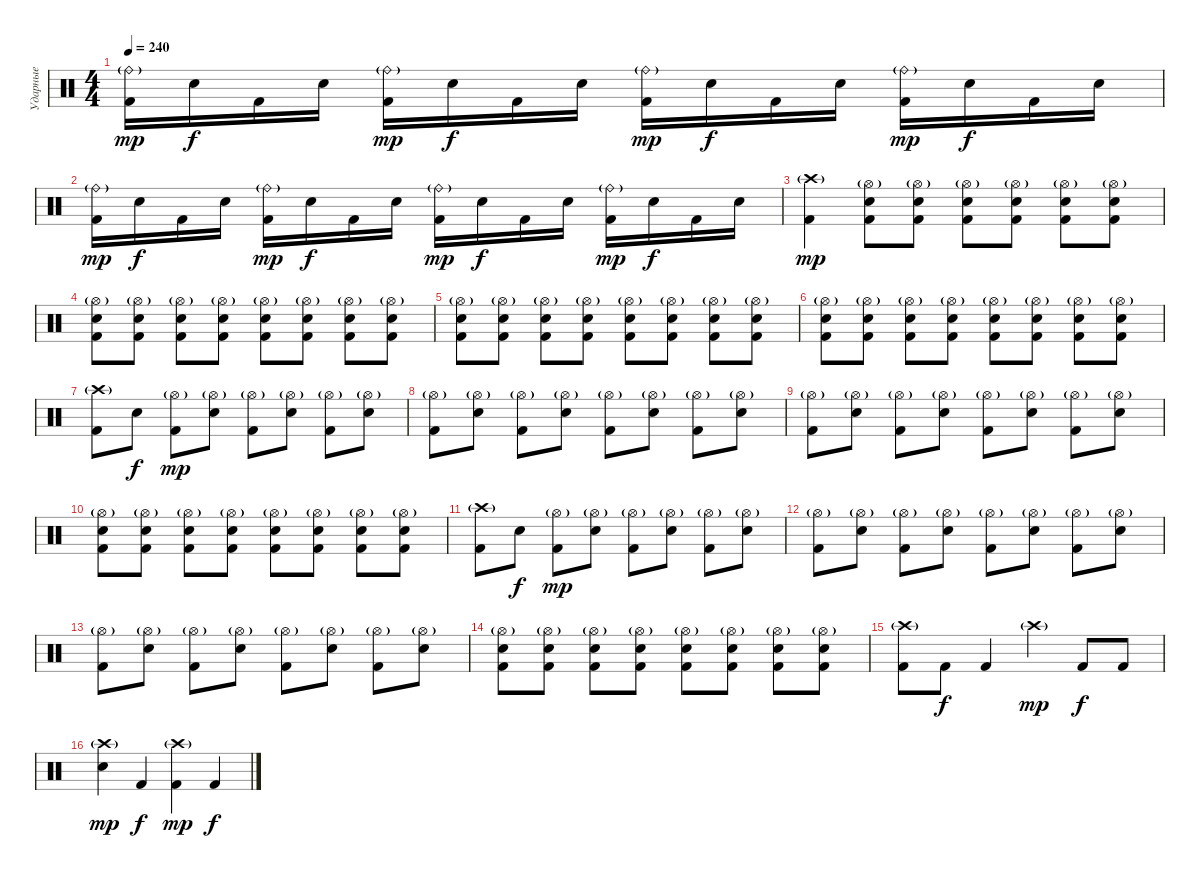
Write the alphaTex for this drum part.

\track ("Ударные" "Ударные") {instrument percussion}
\staff {score}
\articulation defaults
\ts (4 4)
\tempo 240
\clef neutral
\ks c
("Ride (bell)"{g} "Kick (hit) 2").16{dy mp} "Electric Snare (hit)".16{dy f} "Kick (hit) 2".16 "Electric Snare (hit)".16 ("Ride (bell)"{g} "Kick (hit) 2").16{dy mp} "Electric Snare (hit)".16{dy f} "Kick (hit) 2".16 "Electric Snare (hit)".16 ("Ride (bell)"{g} "Kick (hit) 2").16{dy mp} "Electric Snare (hit)".16{dy f} "Kick (hit) 2".16 "Electric Snare (hit)".16 ("Ride (bell)"{g} "Kick (hit) 2").16{dy mp} "Electric Snare (hit)".16{dy f} "Kick (hit) 2".16 "Electric Snare (hit)".16 |
("Ride (bell)"{g} "Kick (hit) 2").16{dy mp} "Electric Snare (hit)".16{dy f} "Kick (hit) 2".16 "Electric Snare (hit)".16 ("Ride (bell)"{g} "Kick (hit) 2").16{dy mp} "Electric Snare (hit)".16{dy f} "Kick (hit) 2".16 "Electric Snare (hit)".16 ("Ride (bell)"{g} "Kick (hit) 2").16{dy mp} "Electric Snare (hit)".16{dy f} "Kick (hit) 2".16 "Electric Snare (hit)".16 ("Ride (bell)"{g} "Kick (hit) 2").16{dy mp} "Electric Snare (hit)".16{dy f} "Kick (hit) 2".16 "Electric Snare (hit)".16 |
("Crash high (hit)"{g} "Kick (hit) 2").4{dy mp} ("Hi-Hat (open)"{g} "Electric Snare (hit)" "Kick (hit) 2").8 ("Hi-Hat (open)"{g} "Electric Snare (hit)" "Kick (hit) 2").8 ("Hi-Hat (open)"{g} "Electric Snare (hit)" "Kick (hit) 2").8 ("Hi-Hat (open)"{g} "Electric Snare (hit)" "Kick (hit) 2").8 ("Hi-Hat (open)"{g} "Electric Snare (hit)" "Kick (hit) 2").8 ("Hi-Hat (open)"{g} "Electric Snare (hit)" "Kick (hit) 2").8 |
("Hi-Hat (open)"{g} "Electric Snare (hit)" "Kick (hit) 2").8 ("Hi-Hat (open)"{g} "Electric Snare (hit)" "Kick (hit) 2").8 ("Hi-Hat (open)"{g} "Electric Snare (hit)" "Kick (hit) 2").8 ("Hi-Hat (open)"{g} "Electric Snare (hit)" "Kick (hit) 2").8 ("Hi-Hat (open)"{g} "Electric Snare (hit)" "Kick (hit) 2").8 ("Hi-Hat (open)"{g} "Electric Snare (hit)" "Kick (hit) 2").8 ("Hi-Hat (open)"{g} "Electric Snare (hit)" "Kick (hit) 2").8 ("Hi-Hat (open)"{g} "Electric Snare (hit)" "Kick (hit) 2").8 |
("Hi-Hat (open)"{g} "Electric Snare (hit)" "Kick (hit) 2").8 ("Hi-Hat (open)"{g} "Electric Snare (hit)" "Kick (hit) 2").8 ("Hi-Hat (open)"{g} "Electric Snare (hit)" "Kick (hit) 2").8 ("Hi-Hat (open)"{g} "Electric Snare (hit)" "Kick (hit) 2").8 ("Hi-Hat (open)"{g} "Electric Snare (hit)" "Kick (hit) 2").8 ("Hi-Hat (open)"{g} "Electric Snare (hit)" "Kick (hit) 2").8 ("Hi-Hat (open)"{g} "Electric Snare (hit)" "Kick (hit) 2").8 ("Hi-Hat (open)"{g} "Electric Snare (hit)" "Kick (hit) 2").8 |
("Hi-Hat (open)"{g} "Electric Snare (hit)" "Kick (hit) 2").8 ("Hi-Hat (open)"{g} "Electric Snare (hit)" "Kick (hit) 2").8 ("Hi-Hat (open)"{g} "Electric Snare (hit)" "Kick (hit) 2").8 ("Hi-Hat (open)"{g} "Electric Snare (hit)" "Kick (hit) 2").8 ("Hi-Hat (open)"{g} "Electric Snare (hit)" "Kick (hit) 2").8 ("Hi-Hat (open)"{g} "Electric Snare (hit)" "Kick (hit) 2").8 ("Hi-Hat (open)"{g} "Electric Snare (hit)" "Kick (hit) 2").8 ("Hi-Hat (open)"{g} "Electric Snare (hit)" "Kick (hit) 2").8 |
("Crash high (hit)"{g} "Kick (hit) 2").8 "Electric Snare (hit)".8{dy f} ("Hi-Hat (open)"{g} "Kick (hit) 2").8{dy mp} ("Hi-Hat (open)"{g} "Electric Snare (hit)").8 ("Hi-Hat (open)"{g} "Kick (hit) 2").8 ("Hi-Hat (open)"{g} "Electric Snare (hit)").8 ("Hi-Hat (open)"{g} "Kick (hit) 2").8 ("Hi-Hat (open)"{g} "Electric Snare (hit)").8 |
("Hi-Hat (open)"{g} "Kick (hit) 2").8 ("Hi-Hat (open)"{g} "Electric Snare (hit)").8 ("Hi-Hat (open)"{g} "Kick (hit) 2").8 ("Hi-Hat (open)"{g} "Electric Snare (hit)").8 ("Hi-Hat (open)"{g} "Kick (hit) 2").8 ("Hi-Hat (open)"{g} "Electric Snare (hit)").8 ("Hi-Hat (open)"{g} "Kick (hit) 2").8 ("Hi-Hat (open)"{g} "Electric Snare (hit)").8 |
("Hi-Hat (open)"{g} "Kick (hit) 2").8 ("Hi-Hat (open)"{g} "Electric Snare (hit)").8 ("Hi-Hat (open)"{g} "Kick (hit) 2").8 ("Hi-Hat (open)"{g} "Electric Snare (hit)").8 ("Hi-Hat (open)"{g} "Kick (hit) 2").8 ("Hi-Hat (open)"{g} "Electric Snare (hit)").8 ("Hi-Hat (open)"{g} "Kick (hit) 2").8 ("Hi-Hat (open)"{g} "Electric Snare (hit)").8 |
("Hi-Hat (open)"{g} "Electric Snare (hit)" "Kick (hit) 2").8 ("Hi-Hat (open)"{g} "Electric Snare (hit)" "Kick (hit) 2").8 ("Hi-Hat (open)"{g} "Electric Snare (hit)" "Kick (hit) 2").8 ("Hi-Hat (open)"{g} "Electric Snare (hit)" "Kick (hit) 2").8 ("Hi-Hat (open)"{g} "Electric Snare (hit)" "Kick (hit) 2").8 ("Hi-Hat (open)"{g} "Electric Snare (hit)" "Kick (hit) 2").8 ("Hi-Hat (open)"{g} "Electric Snare (hit)" "Kick (hit) 2").8 ("Hi-Hat (open)"{g} "Electric Snare (hit)" "Kick (hit) 2").8 |
("Crash high (hit)"{g} "Kick (hit) 2").8 "Electric Snare (hit)".8{dy f} ("Hi-Hat (open)"{g} "Kick (hit) 2").8{dy mp} ("Hi-Hat (open)"{g} "Electric Snare (hit)").8 ("Hi-Hat (open)"{g} "Kick (hit) 2").8 ("Hi-Hat (open)"{g} "Electric Snare (hit)").8 ("Hi-Hat (open)"{g} "Kick (hit) 2").8 ("Hi-Hat (open)"{g} "Electric Snare (hit)").8 |
("Hi-Hat (open)"{g} "Kick (hit) 2").8 ("Hi-Hat (open)"{g} "Electric Snare (hit)").8 ("Hi-Hat (open)"{g} "Kick (hit) 2").8 ("Hi-Hat (open)"{g} "Electric Snare (hit)").8 ("Hi-Hat (open)"{g} "Kick (hit) 2").8 ("Hi-Hat (open)"{g} "Electric Snare (hit)").8 ("Hi-Hat (open)"{g} "Kick (hit) 2").8 ("Hi-Hat (open)"{g} "Electric Snare (hit)").8 |
("Hi-Hat (open)"{g} "Kick (hit) 2").8 ("Hi-Hat (open)"{g} "Electric Snare (hit)").8 ("Hi-Hat (open)"{g} "Kick (hit) 2").8 ("Hi-Hat (open)"{g} "Electric Snare (hit)").8 ("Hi-Hat (open)"{g} "Kick (hit) 2").8 ("Hi-Hat (open)"{g} "Electric Snare (hit)").8 ("Hi-Hat (open)"{g} "Kick (hit) 2").8 ("Hi-Hat (open)"{g} "Electric Snare (hit)").8 |
("Hi-Hat (open)"{g} "Electric Snare (hit)" "Kick (hit) 2").8 ("Hi-Hat (open)"{g} "Electric Snare (hit)" "Kick (hit) 2").8 ("Hi-Hat (open)"{g} "Electric Snare (hit)" "Kick (hit) 2").8 ("Hi-Hat (open)"{g} "Electric Snare (hit)" "Kick (hit) 2").8 ("Hi-Hat (open)"{g} "Electric Snare (hit)" "Kick (hit) 2").8 ("Hi-Hat (open)"{g} "Electric Snare (hit)" "Kick (hit) 2").8 ("Hi-Hat (open)"{g} "Electric Snare (hit)" "Kick (hit) 2").8 ("Hi-Hat (open)"{g} "Electric Snare (hit)" "Kick (hit) 2").8 |
("Crash high (hit)"{g} "Kick (hit) 2").8 "Kick (hit) 2".8{dy f} "Kick (hit) 2".4 "Crash high (hit)"{g}.4{dy mp} "Kick (hit) 2".8{dy f} "Kick (hit) 2".8 |
("Crash high (hit)"{g} "Electric Snare (hit)").4{dy mp} "Kick (hit) 2".4{dy f} ("Crash high (hit)"{g} "Kick (hit) 2").4{dy mp} "Kick (hit) 2".4{dy f}
